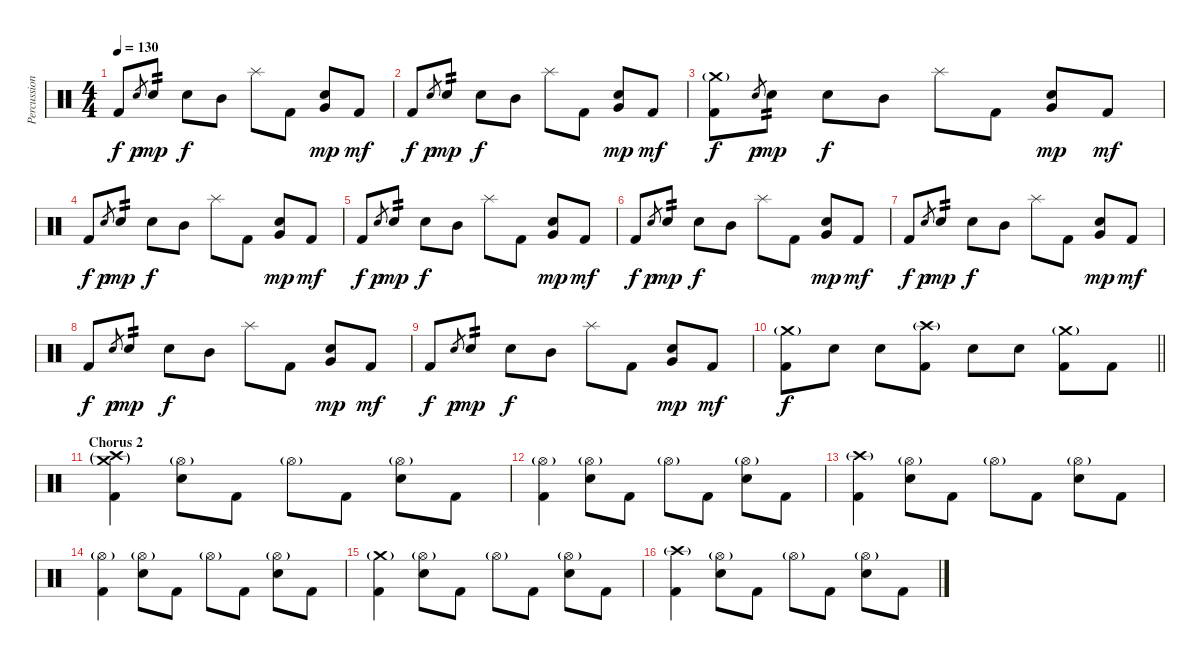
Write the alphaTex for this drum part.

\track ("Percussion" "Percussion") {instrument percussion}
\staff {score}
\articulation defaults
\ts (4 4)
\tempo 130
\clef neutral
\ks c "Kick (hit) 2".8{dy f} "Electric Snare (hit)".8{gr dy p} "Electric Snare (hit)".8{tp 2 dy mp} "Electric Snare (hit)".8{dy f} "Mid Tom (hit)".8 "Splash (hit)".8 "Kick (hit) 2".8
("Electric Snare (hit)" "Very Low Tom (hit)").8{dy mp} "Kick (hit) 2".8{dy mf} |
"Kick (hit) 2".8{dy f} "Electric Snare (hit)".8{gr dy p} "Electric Snare (hit)".8{tp 2 dy mp} "Electric Snare (hit)".8{dy f} "Mid Tom (hit)".8 "Splash (hit)".8 "Kick (hit) 2".8 ("Electric Snare (hit)" "Very Low Tom (hit)").8{dy mp} "Kick (hit) 2".8{dy mf} |
("Crash medium (hit)"{g} "Kick (hit) 2").8{dy f} "Electric Snare (hit)".8{gr dy p} "Electric Snare (hit)".8{tp 2 dy mp} "Electric Snare (hit)".8{dy f} "Mid Tom (hit)".8 "Splash (hit)".8 "Kick (hit) 2".8 ("Electric Snare (hit)" "Very Low Tom (hit)").8{dy mp} "Kick (hit) 2".8{dy mf} |
"Kick (hit) 2".8{dy f} "Electric Snare (hit)".8{gr dy p} "Electric Snare (hit)".8{tp 2 dy mp} "Electric Snare (hit)".8{dy f} "Mid Tom (hit)".8 "Splash (hit)".8 "Kick (hit) 2".8 ("Electric Snare (hit)" "Very Low Tom (hit)").8{dy mp} "Kick (hit) 2".8{dy mf} |
"Kick (hit) 2".8{dy f} "Electric Snare (hit)".8{gr dy p} "Electric Snare (hit)".8{tp 2 dy mp} "Electric Snare (hit)".8{dy f} "Mid Tom (hit)".8 "Splash (hit)".8 "Kick (hit) 2".8 ("Electric Snare (hit)" "Very Low Tom (hit)").8{dy mp} "Kick (hit) 2".8{dy mf} |
"Kick (hit) 2".8{dy f} "Electric Snare (hit)".8{gr dy p} "Electric Snare (hit)".8{tp 2 dy mp} "Electric Snare (hit)".8{dy f} "Mid Tom (hit)".8 "Splash (hit)".8 "Kick (hit) 2".8 ("Electric Snare (hit)" "Very Low Tom (hit)").8{dy mp} "Kick (hit) 2".8{dy mf} |
"Kick (hit) 2".8{dy f} "Electric Snare (hit)".8{gr dy p} "Electric Snare (hit)".8{tp 2 dy mp} "Electric Snare (hit)".8{dy f} "Mid Tom (hit)".8 "Splash (hit)".8 "Kick (hit) 2".8 ("Electric Snare (hit)" "Very Low Tom (hit)").8{dy mp} "Kick (hit) 2".8{dy mf} |
"Kick (hit) 2".8{dy f} "Electric Snare (hit)".8{gr dy p} "Electric Snare (hit)".8{tp 2 dy mp} "Electric Snare (hit)".8{dy f} "Mid Tom (hit)".8 "Splash (hit)".8 "Kick (hit) 2".8 ("Electric Snare (hit)" "Very Low Tom (hit)").8{dy mp} "Kick (hit) 2".8{dy mf} |
"Kick (hit) 2".8{dy f} "Electric Snare (hit)".8{gr dy p} "Electric Snare (hit)".8{tp 2 dy mp} "Electric Snare (hit)".8{dy f} "Mid Tom (hit)".8 "Splash (hit)".8 "Kick (hit) 2".8 ("Electric Snare (hit)" "Very Low Tom (hit)").8{dy mp} "Kick (hit) 2".8{dy mf} |
\barLineRight lightlight
("Crash medium (hit)"{g} "Kick (hit) 2").8{dy f} "Electric Snare (hit)".8 "Electric Snare (hit)".8 ("Crash high (hit)"{g} "Kick (hit) 2").8 "Electric Snare (hit)".8 "Electric Snare (hit)".8 ("Crash medium (hit)"{g} "Kick (hit) 2").8 "Kick (hit) 2".8 |
\section ("" "Chorus 2")
("Crash medium (hit)"{g} "Crash high (hit)"{g} "Kick (hit) 2").4 ("Hi-Hat (open)"{g} "Electric Snare (hit)").8 "Kick (hit) 2".8 "Hi-Hat (open)"{g}.8 "Kick (hit) 2".8 ("Hi-Hat (open)"{g} "Electric Snare (hit)").8 "Kick (hit) 2".8 |
("Hi-Hat (open)"{g} "Kick (hit) 2").4 ("Hi-Hat (open)"{g} "Electric Snare (hit)").8 "Kick (hit) 2".8 "Hi-Hat (open)"{g}.8 "Kick (hit) 2".8 ("Hi-Hat (open)"{g} "Electric Snare (hit)").8 "Kick (hit) 2".8 |
("Crash high (hit)"{g} "Kick (hit) 2").4 ("Hi-Hat (open)"{g} "Electric Snare (hit)").8 "Kick (hit) 2".8 "Hi-Hat (open)"{g}.8 "Kick (hit) 2".8 ("Hi-Hat (open)"{g} "Electric Snare (hit)").8 "Kick (hit) 2".8 |
("Hi-Hat (open)"{g} "Kick (hit) 2").4 ("Hi-Hat (open)"{g} "Electric Snare (hit)").8 "Kick (hit) 2".8 "Hi-Hat (open)"{g}.8 "Kick (hit) 2".8 ("Hi-Hat (open)"{g} "Electric Snare (hit)").8 "Kick (hit) 2".8 |
("Crash medium (hit)"{g} "Kick (hit) 2").4 ("Hi-Hat (open)"{g} "Electric Snare (hit)").8 "Kick (hit) 2".8 "Hi-Hat (open)"{g}.8 "Kick (hit) 2".8 ("Hi-Hat (open)"{g} "Electric Snare (hit)").8 "Kick (hit) 2".8 |
("Crash high (hit)"{g} "Kick (hit) 2").4 ("Hi-Hat (open)"{g} "Electric Snare (hit)").8 "Kick (hit) 2".8 "Hi-Hat (open)"{g}.8 "Kick (hit) 2".8 ("Hi-Hat (open)"{g} "Electric Snare (hit)").8 "Kick (hit) 2".8
